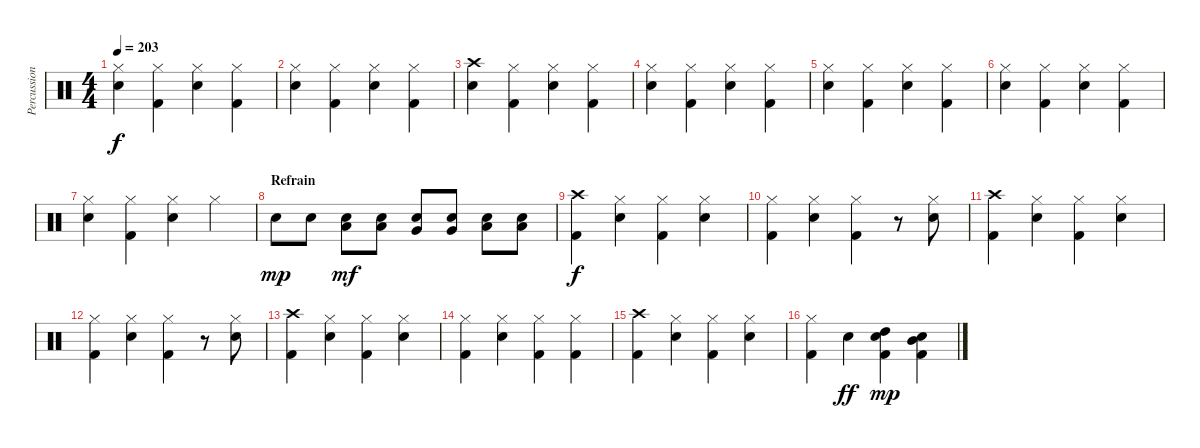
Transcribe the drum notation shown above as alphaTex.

\track ("Percussion" "Percussion") {instrument percussion}
\staff {score}
\articulation defaults
\ts (4 4)
\tempo 203
\clef neutral
\ks c
("Hi-Hat (closed)" "Electric Snare (hit)").4{dy f} ("Hi-Hat (closed)" "Kick (hit) 2").4 ("Hi-Hat (closed)" "Electric Snare (hit)").4 ("Hi-Hat (closed)" "Kick (hit) 2").4 |
("Hi-Hat (closed)" "Electric Snare (hit)").4 ("Hi-Hat (closed)" "Kick (hit) 2").4 ("Hi-Hat (closed)" "Electric Snare (hit)").4 ("Hi-Hat (closed)" "Kick (hit) 2").4 |
("Crash high (hit)" "Electric Snare (hit)").4 ("Hi-Hat (closed)" "Kick (hit) 2").4 ("Hi-Hat (closed)" "Electric Snare (hit)").4 ("Hi-Hat (closed)" "Kick (hit) 2").4 |
("Hi-Hat (closed)" "Electric Snare (hit)").4 ("Hi-Hat (closed)" "Kick (hit) 2").4 ("Hi-Hat (closed)" "Electric Snare (hit)").4 ("Hi-Hat (closed)" "Kick (hit) 2").4 |
("Hi-Hat (closed)" "Electric Snare (hit)").4 ("Hi-Hat (closed)" "Kick (hit) 2").4 ("Hi-Hat (closed)" "Electric Snare (hit)").4 ("Hi-Hat (closed)" "Kick (hit) 2").4 |
("Hi-Hat (closed)" "Electric Snare (hit)").4 ("Hi-Hat (closed)" "Kick (hit) 2").4 ("Hi-Hat (closed)" "Electric Snare (hit)").4 ("Hi-Hat (closed)" "Kick (hit) 2").4 |
("Hi-Hat (closed)" "Electric Snare (hit)").4 ("Hi-Hat (closed)" "Kick (hit) 2").4 ("Hi-Hat (closed)" "Electric Snare (hit)").4 "Hi-Hat (closed)".4 |
\section ("" "Refrain")
"Electric Snare (hit)".8{dy mp} "Electric Snare (hit)".8 ("Electric Snare (hit)" "Low Tom (hit)").8{dy mf} ("Electric Snare (hit)" "Low Tom (hit)").8 ("Electric Snare (hit)" "Very Low Tom (hit)").8 ("Electric Snare (hit)" "Very Low Tom (hit)").8 ("Electric Snare (hit)" "Low Floor Tom (hit)").8 ("Electric Snare (hit)" "Low Floor Tom (hit)").8 |
("Crash high (hit)" "Kick (hit) 2").4{dy f} ("Hi-Hat (closed)" "Electric Snare (hit)").4 ("Hi-Hat (closed)" "Kick (hit) 2").4 ("Hi-Hat (closed)" "Electric Snare (hit)").4 |
("Hi-Hat (closed)" "Kick (hit) 2").4 ("Hi-Hat (closed)" "Electric Snare (hit)").4 ("Hi-Hat (closed)" "Kick (hit) 2").4 r.8 ("Hi-Hat (closed)" "Electric Snare (hit)").8 |
("Crash high (hit)" "Kick (hit) 2").4 ("Hi-Hat (closed)" "Electric Snare (hit)").4 ("Hi-Hat (closed)" "Kick (hit) 2").4 ("Hi-Hat (closed)" "Electric Snare (hit)").4 |
("Hi-Hat (closed)" "Kick (hit) 2").4 ("Hi-Hat (closed)" "Electric Snare (hit)").4 ("Hi-Hat (closed)" "Kick (hit) 2").4 r.8 ("Hi-Hat (closed)" "Electric Snare (hit)").8 |
("Crash high (hit)" "Kick (hit) 2").4 ("Hi-Hat (closed)" "Electric Snare (hit)").4 ("Hi-Hat (closed)" "Kick (hit) 2").4 ("Hi-Hat (closed)" "Electric Snare (hit)").4 |
("Hi-Hat (closed)" "Kick (hit) 2").4 ("Hi-Hat (closed)" "Electric Snare (hit)").4 ("Hi-Hat (closed)" "Kick (hit) 2").4 ("Hi-Hat (closed)" "Kick (hit) 2").4 |
("Crash high (hit)" "Kick (hit) 2").4 ("Hi-Hat (closed)" "Electric Snare (hit)").4 ("Hi-Hat (closed)" "Kick (hit) 2").4 ("Hi-Hat (closed)" "Electric Snare (hit)").4 |
("Hi-Hat (closed)" "Kick (hit) 2").4 "Electric Snare (hit)".4{dy ff} ("High Tom (hit)" "Electric Snare (hit)" "Kick (hit) 2").4{dy mp} ("Mid Tom (hit)" "Electric Snare (hit)" "Kick (hit) 2").4
